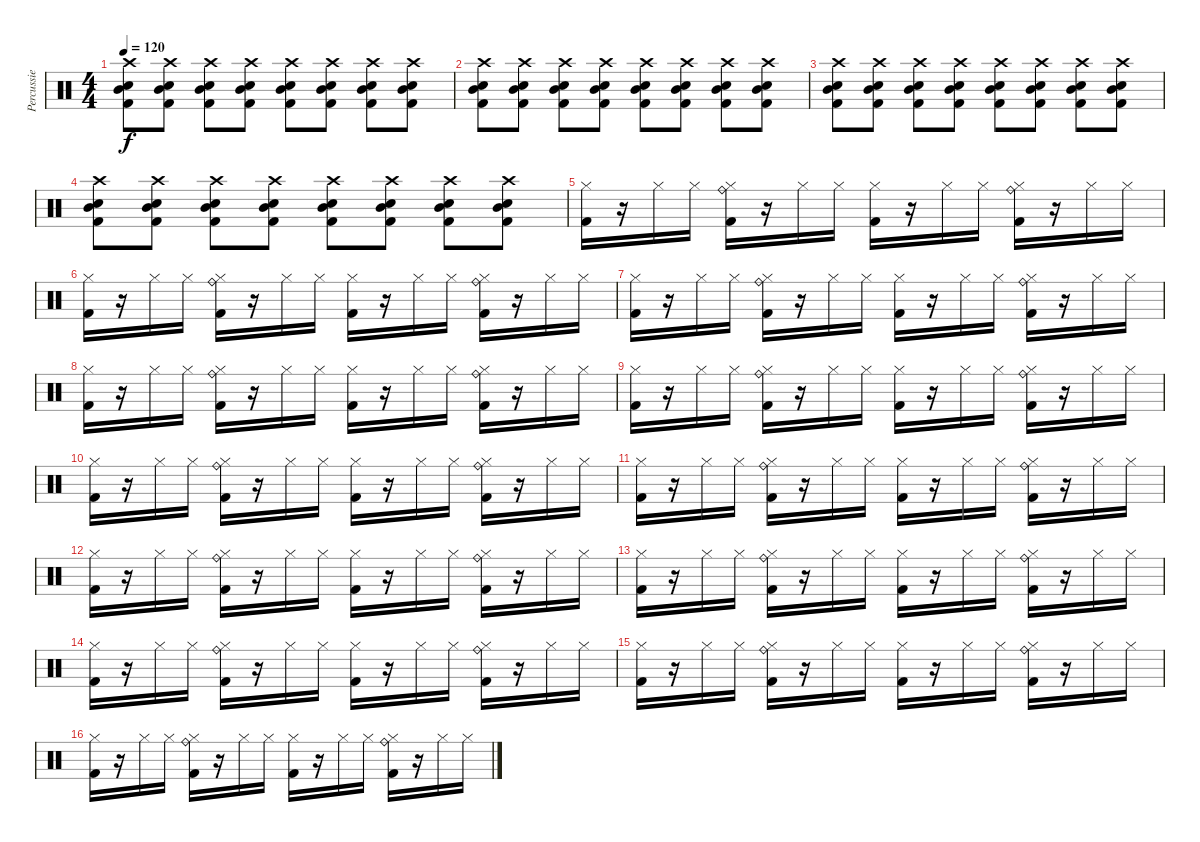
\track ("Percussie" "Percussie") {instrument percussion}
\staff {score}
\articulation defaults
\ts (4 4)
\tempo 120
\clef neutral
\ks c
("Kick (hit) 2" "Electric Snare (hit)" "Mid Tom (hit)" "Crash high (hit)").8{dy f} ("Kick (hit) 2" "Electric Snare (hit)" "Mid Tom (hit)" "Crash high (hit)").8 ("Kick (hit) 2" "Electric Snare (hit)" "Mid Tom (hit)" "Crash high (hit)").8 ("Kick (hit) 2" "Electric Snare (hit)" "Mid Tom (hit)" "Crash high (hit)").8 ("Kick (hit) 2" "Electric Snare (hit)" "Mid Tom (hit)" "Crash high (hit)").8 ("Kick (hit) 2" "Electric Snare (hit)" "Mid Tom (hit)" "Crash high (hit)").8 ("Kick (hit) 2" "Electric Snare (hit)" "Mid Tom (hit)" "Crash high (hit)").8 ("Kick (hit) 2" "Electric Snare (hit)" "Mid Tom (hit)" "Crash high (hit)").8 |
("Kick (hit) 2" "Electric Snare (hit)" "Mid Tom (hit)" "Crash high (hit)").8 ("Kick (hit) 2" "Electric Snare (hit)" "Mid Tom (hit)" "Crash high (hit)").8 ("Kick (hit) 2" "Electric Snare (hit)" "Mid Tom (hit)" "Crash high (hit)").8 ("Kick (hit) 2" "Electric Snare (hit)" "Mid Tom (hit)" "Crash high (hit)").8 ("Kick (hit) 2" "Electric Snare (hit)" "Mid Tom (hit)" "Crash high (hit)").8 ("Kick (hit) 2" "Electric Snare (hit)" "Mid Tom (hit)" "Crash high (hit)").8 ("Kick (hit) 2" "Electric Snare (hit)" "Mid Tom (hit)" "Crash high (hit)").8 ("Kick (hit) 2" "Electric Snare (hit)" "Mid Tom (hit)" "Crash high (hit)").8 |
("Kick (hit) 2" "Electric Snare (hit)" "Mid Tom (hit)" "Crash high (hit)").8 ("Kick (hit) 2" "Electric Snare (hit)" "Mid Tom (hit)" "Crash high (hit)").8 ("Kick (hit) 2" "Electric Snare (hit)" "Mid Tom (hit)" "Crash high (hit)").8 ("Kick (hit) 2" "Electric Snare (hit)" "Mid Tom (hit)" "Crash high (hit)").8 ("Kick (hit) 2" "Electric Snare (hit)" "Mid Tom (hit)" "Crash high (hit)").8 ("Kick (hit) 2" "Electric Snare (hit)" "Mid Tom (hit)" "Crash high (hit)").8 ("Kick (hit) 2" "Electric Snare (hit)" "Mid Tom (hit)" "Crash high (hit)").8 ("Kick (hit) 2" "Electric Snare (hit)" "Mid Tom (hit)" "Crash high (hit)").8 |
("Kick (hit) 2" "Electric Snare (hit)" "Mid Tom (hit)" "Crash high (hit)").8 ("Kick (hit) 2" "Electric Snare (hit)" "Mid Tom (hit)" "Crash high (hit)").8 ("Kick (hit) 2" "Electric Snare (hit)" "Mid Tom (hit)" "Crash high (hit)").8 ("Kick (hit) 2" "Electric Snare (hit)" "Mid Tom (hit)" "Crash high (hit)").8 ("Kick (hit) 2" "Electric Snare (hit)" "Mid Tom (hit)" "Crash high (hit)").8 ("Kick (hit) 2" "Electric Snare (hit)" "Mid Tom (hit)" "Crash high (hit)").8 ("Kick (hit) 2" "Electric Snare (hit)" "Mid Tom (hit)" "Crash high (hit)").8 ("Kick (hit) 2" "Electric Snare (hit)" "Mid Tom (hit)" "Crash high (hit)").8 |
("Kick (hit) 2" "Hi-Hat (closed)").16 r.16 "Hi-Hat (closed)".16 "Hi-Hat (closed)".16 ("Kick (hit) 2" "Hi-Hat (closed)" "Ride (bell)").16 r.16 "Hi-Hat (closed)".16 "Hi-Hat (closed)".16 ("Kick (hit) 2" "Hi-Hat (closed)").16 r.16 "Hi-Hat (closed)".16 "Hi-Hat (closed)".16 ("Kick (hit) 2" "Hi-Hat (closed)" "Ride (bell)").16 r.16 "Hi-Hat (closed)".16 "Hi-Hat (closed)".16 |
("Kick (hit) 2" "Hi-Hat (closed)").16 r.16 "Hi-Hat (closed)".16 "Hi-Hat (closed)".16 ("Kick (hit) 2" "Hi-Hat (closed)" "Ride (bell)").16 r.16 "Hi-Hat (closed)".16 "Hi-Hat (closed)".16 ("Kick (hit) 2" "Hi-Hat (closed)").16 r.16 "Hi-Hat (closed)".16 "Hi-Hat (closed)".16 ("Kick (hit) 2" "Hi-Hat (closed)" "Ride (bell)").16 r.16 "Hi-Hat (closed)".16 "Hi-Hat (closed)".16 |
("Kick (hit) 2" "Hi-Hat (closed)").16 r.16 "Hi-Hat (closed)".16 "Hi-Hat (closed)".16 ("Kick (hit) 2" "Hi-Hat (closed)" "Ride (bell)").16 r.16 "Hi-Hat (closed)".16 "Hi-Hat (closed)".16 ("Kick (hit) 2" "Hi-Hat (closed)").16 r.16 "Hi-Hat (closed)".16 "Hi-Hat (closed)".16 ("Kick (hit) 2" "Hi-Hat (closed)" "Ride (bell)").16 r.16 "Hi-Hat (closed)".16 "Hi-Hat (closed)".16 |
("Kick (hit) 2" "Hi-Hat (closed)").16 r.16 "Hi-Hat (closed)".16 "Hi-Hat (closed)".16 ("Kick (hit) 2" "Hi-Hat (closed)" "Ride (bell)").16 r.16 "Hi-Hat (closed)".16 "Hi-Hat (closed)".16 ("Kick (hit) 2" "Hi-Hat (closed)").16 r.16 "Hi-Hat (closed)".16 "Hi-Hat (closed)".16 ("Kick (hit) 2" "Hi-Hat (closed)" "Ride (bell)").16 r.16 "Hi-Hat (closed)".16 "Hi-Hat (closed)".16 |
("Kick (hit) 2" "Hi-Hat (closed)").16 r.16 "Hi-Hat (closed)".16 "Hi-Hat (closed)".16 ("Kick (hit) 2" "Hi-Hat (closed)" "Ride (bell)").16 r.16 "Hi-Hat (closed)".16 "Hi-Hat (closed)".16 ("Kick (hit) 2" "Hi-Hat (closed)").16 r.16 "Hi-Hat (closed)".16 "Hi-Hat (closed)".16 ("Kick (hit) 2" "Hi-Hat (closed)" "Ride (bell)").16 r.16 "Hi-Hat (closed)".16 "Hi-Hat (closed)".16 |
("Kick (hit) 2" "Hi-Hat (closed)").16 r.16 "Hi-Hat (closed)".16 "Hi-Hat (closed)".16 ("Kick (hit) 2" "Hi-Hat (closed)" "Ride (bell)").16 r.16 "Hi-Hat (closed)".16 "Hi-Hat (closed)".16 ("Kick (hit) 2" "Hi-Hat (closed)").16 r.16 "Hi-Hat (closed)".16 "Hi-Hat (closed)".16 ("Kick (hit) 2" "Hi-Hat (closed)" "Ride (bell)").16 r.16 "Hi-Hat (closed)".16 "Hi-Hat (closed)".16 |
("Kick (hit) 2" "Hi-Hat (closed)").16 r.16 "Hi-Hat (closed)".16 "Hi-Hat (closed)".16 ("Kick (hit) 2" "Hi-Hat (closed)" "Ride (bell)").16 r.16 "Hi-Hat (closed)".16 "Hi-Hat (closed)".16 ("Kick (hit) 2" "Hi-Hat (closed)").16 r.16 "Hi-Hat (closed)".16 "Hi-Hat (closed)".16 ("Kick (hit) 2" "Hi-Hat (closed)" "Ride (bell)").16 r.16 "Hi-Hat (closed)".16 "Hi-Hat (closed)".16 |
("Kick (hit) 2" "Hi-Hat (closed)").16 r.16 "Hi-Hat (closed)".16 "Hi-Hat (closed)".16 ("Kick (hit) 2" "Hi-Hat (closed)" "Ride (bell)").16 r.16 "Hi-Hat (closed)".16 "Hi-Hat (closed)".16 ("Kick (hit) 2" "Hi-Hat (closed)").16 r.16 "Hi-Hat (closed)".16 "Hi-Hat (closed)".16 ("Kick (hit) 2" "Hi-Hat (closed)" "Ride (bell)").16 r.16 "Hi-Hat (closed)".16 "Hi-Hat (closed)".16 |
("Kick (hit) 2" "Hi-Hat (closed)").16 r.16 "Hi-Hat (closed)".16 "Hi-Hat (closed)".16 ("Kick (hit) 2" "Hi-Hat (closed)" "Ride (bell)").16 r.16 "Hi-Hat (closed)".16 "Hi-Hat (closed)".16 ("Kick (hit) 2" "Hi-Hat (closed)").16 r.16 "Hi-Hat (closed)".16 "Hi-Hat (closed)".16 ("Kick (hit) 2" "Hi-Hat (closed)" "Ride (bell)").16 r.16 "Hi-Hat (closed)".16 "Hi-Hat (closed)".16 |
("Kick (hit) 2" "Hi-Hat (closed)").16 r.16 "Hi-Hat (closed)".16 "Hi-Hat (closed)".16 ("Kick (hit) 2" "Hi-Hat (closed)" "Ride (bell)").16 r.16 "Hi-Hat (closed)".16 "Hi-Hat (closed)".16 ("Kick (hit) 2" "Hi-Hat (closed)").16 r.16 "Hi-Hat (closed)".16 "Hi-Hat (closed)".16 ("Kick (hit) 2" "Hi-Hat (closed)" "Ride (bell)").16 r.16 "Hi-Hat (closed)".16 "Hi-Hat (closed)".16 |
("Kick (hit) 2" "Hi-Hat (closed)").16 r.16 "Hi-Hat (closed)".16 "Hi-Hat (closed)".16 ("Kick (hit) 2" "Hi-Hat (closed)" "Ride (bell)").16 r.16 "Hi-Hat (closed)".16 "Hi-Hat (closed)".16 ("Kick (hit) 2" "Hi-Hat (closed)").16 r.16 "Hi-Hat (closed)".16 "Hi-Hat (closed)".16 ("Kick (hit) 2" "Hi-Hat (closed)" "Ride (bell)").16 r.16 "Hi-Hat (closed)".16 "Hi-Hat (closed)".16 |
("Kick (hit) 2" "Hi-Hat (closed)").16 r.16 "Hi-Hat (closed)".16 "Hi-Hat (closed)".16 ("Kick (hit) 2" "Hi-Hat (closed)" "Ride (bell)").16 r.16 "Hi-Hat (closed)".16 "Hi-Hat (closed)".16 ("Kick (hit) 2" "Hi-Hat (closed)").16 r.16 "Hi-Hat (closed)".16 "Hi-Hat (closed)".16 ("Kick (hit) 2" "Hi-Hat (closed)" "Ride (bell)").16 r.16 "Hi-Hat (closed)".16 "Hi-Hat (closed)".16
